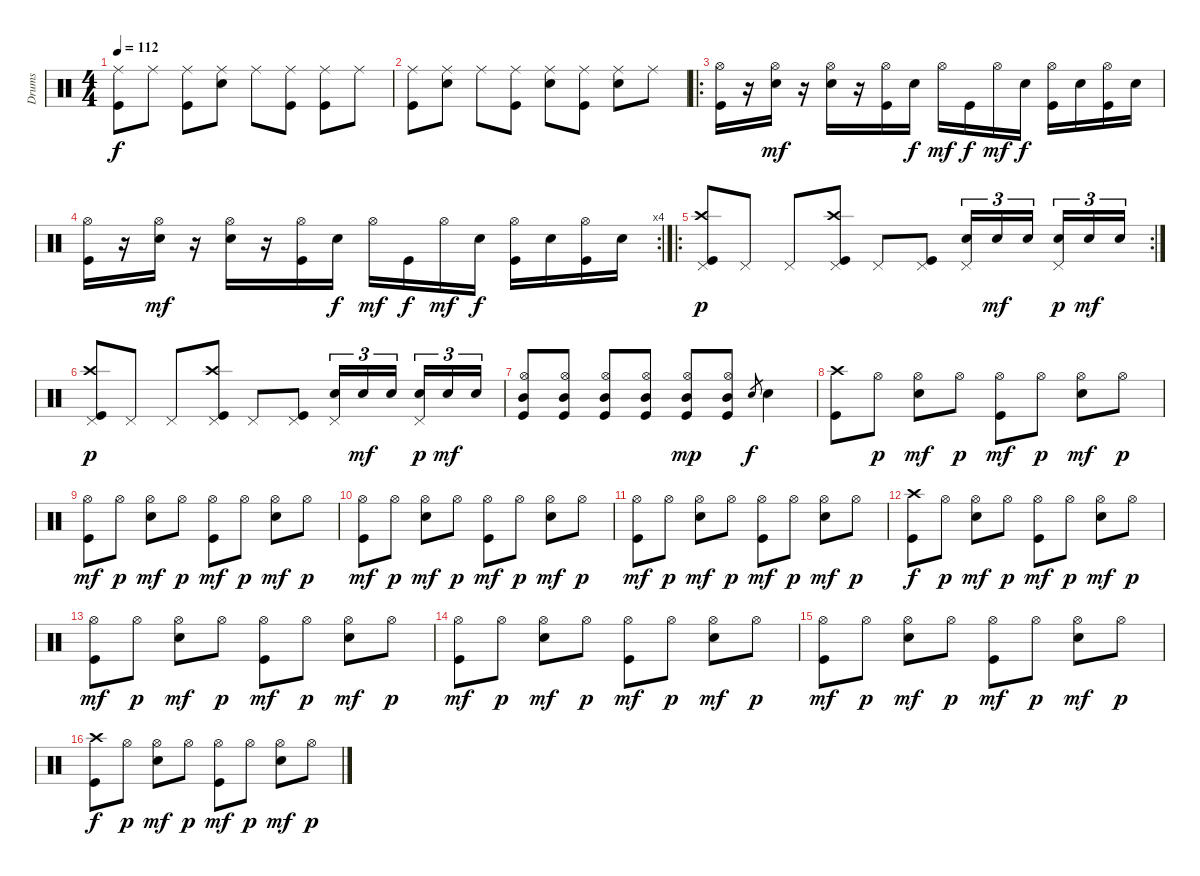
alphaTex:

\track ("Drums" "Drums") {instrument percussion}
\staff {score}
\articulation defaults
\ts (4 4)
\tempo 112
\clef neutral
\ks c
("Ride (middle)" "Kick (hit)").8{dy f} "Ride (middle)".8 ("Ride (middle)" "Kick (hit)").8 ("Ride (middle)" "Snare (hit) 2").8 "Ride (middle)".8 ("Ride (middle)" "Kick (hit)").8 ("Ride (middle)" "Kick (hit)").8 "Ride (middle)".8 |
("Ride (middle)" "Kick (hit)").8 ("Ride (middle)" "Snare (hit) 2").8 "Ride (middle)".8 ("Ride (middle)" "Kick (hit)").8 ("Ride (middle)" "Snare (hit) 2").8 ("Ride (middle)" "Kick (hit)").8 ("Ride (middle)" "Snare (hit) 2").8 "Ride (middle)".8 |
\ro
("Hi-Hat (open)" "Kick (hit)").16 r.16 ("Hi-Hat (open)" "Snare (hit) 2").16{dy mf} r.16 ("Hi-Hat (open)" "Snare (hit) 2").16 r.16 ("Hi-Hat (open)" "Kick (hit)").16 "Snare (hit) 2".16{dy f} "Hi-Hat (open)".16{dy mf} "Kick (hit)".16{dy f} "Hi-Hat (open)".16{dy mf} "Snare (hit) 2".16{dy f} ("Hi-Hat (open)" "Kick (hit)").16 "Snare (hit) 2".16 ("Hi-Hat (open)" "Kick (hit)").16 "Snare (hit) 2".16 |
\rc 4
("Hi-Hat (open)" "Kick (hit)").16 r.16 ("Hi-Hat (open)" "Snare (hit) 2").16{dy mf} r.16 ("Hi-Hat (open)" "Snare (hit) 2").16 r.16 ("Hi-Hat (open)" "Kick (hit)").16 "Snare (hit) 2".16{dy f} "Hi-Hat (open)".16{dy mf} "Kick (hit)".16{dy f} "Hi-Hat (open)".16{dy mf} "Snare (hit) 2".16{dy f} ("Hi-Hat (open)" "Kick (hit)").16 "Snare (hit) 2".16 ("Hi-Hat (open)" "Kick (hit)").16 "Snare (hit) 2".16 |
\ro
\rc 2
("Crash high (hit)" "Pedal Hi-Hat (hit)" "Kick (hit)").8{dy p} "Pedal Hi-Hat (hit)".8 "Pedal Hi-Hat (hit)".8 ("Crash high (hit)" "Pedal Hi-Hat (hit)" "Kick (hit)").8 "Pedal Hi-Hat (hit)".8 ("Pedal Hi-Hat (hit)" "Kick (hit)").8 ("Pedal Hi-Hat (hit)" "Snare (hit) 2").16{tu (3 2)} "Snare (hit) 2".16{tu (3 2) dy mf} "Snare (hit) 2".16{tu (3 2)} ("Pedal Hi-Hat (hit)" "Snare (hit) 2").16{tu (3 2) dy p} "Snare (hit) 2".16{tu (3 2) dy mf} "Snare (hit) 2".16{tu (3 2)} |
("Crash high (hit)" "Pedal Hi-Hat (hit)" "Kick (hit)").8{dy p} "Pedal Hi-Hat (hit)".8 "Pedal Hi-Hat (hit)".8 ("Crash high (hit)" "Pedal Hi-Hat (hit)" "Kick (hit)").8 "Pedal Hi-Hat (hit)".8 ("Pedal Hi-Hat (hit)" "Kick (hit)").8 ("Pedal Hi-Hat (hit)" "Snare (hit) 2").16{tu (3 2)} "Snare (hit) 2".16{tu (3 2) dy mf} "Snare (hit) 2".16{tu (3 2)} ("Pedal Hi-Hat (hit)" "Snare (hit) 2").16{tu (3 2) dy p} "Snare (hit) 2".16{tu (3 2) dy mf} "Snare (hit) 2".16{tu (3 2)} |
("Hi-Hat (open)" "Mid Tom (hit)" "Kick (hit)").8 ("Hi-Hat (open)" "Mid Tom (hit)" "Kick (hit)").8 ("Hi-Hat (open)" "Mid Tom (hit)" "Kick (hit)").8 ("Hi-Hat (open)" "Mid Tom (hit)" "Kick (hit)").8 ("Hi-Hat (open)" "Mid Tom (hit)" "Kick (hit)").8{dy mp} ("Hi-Hat (open)" "Mid Tom (hit)" "Kick (hit)").8 "Snare (hit) 2".8{gr dy f} "Snare (hit) 2".4 |
("Crash high (hit)" "Kick (hit)").8 "Hi-Hat (open)".8{dy p} ("Hi-Hat (open)" "Snare (hit) 2").8{dy mf} "Hi-Hat (open)".8{dy p} ("Hi-Hat (open)" "Kick (hit)").8{dy mf} "Hi-Hat (open)".8{dy p} ("Hi-Hat (open)" "Snare (hit) 2").8{dy mf} "Hi-Hat (open)".8{dy p} |
("Hi-Hat (open)" "Kick (hit)").8{dy mf} "Hi-Hat (open)".8{dy p} ("Hi-Hat (open)" "Snare (hit) 2").8{dy mf} "Hi-Hat (open)".8{dy p} ("Hi-Hat (open)" "Kick (hit)").8{dy mf} "Hi-Hat (open)".8{dy p} ("Hi-Hat (open)" "Snare (hit) 2").8{dy mf} "Hi-Hat (open)".8{dy p} |
("Hi-Hat (open)" "Kick (hit)").8{dy mf} "Hi-Hat (open)".8{dy p} ("Hi-Hat (open)" "Snare (hit) 2").8{dy mf} "Hi-Hat (open)".8{dy p} ("Hi-Hat (open)" "Kick (hit)").8{dy mf} "Hi-Hat (open)".8{dy p} ("Hi-Hat (open)" "Snare (hit) 2").8{dy mf} "Hi-Hat (open)".8{dy p} |
("Hi-Hat (open)" "Kick (hit)").8{dy mf} "Hi-Hat (open)".8{dy p} ("Hi-Hat (open)" "Snare (hit) 2").8{dy mf} "Hi-Hat (open)".8{dy p} ("Hi-Hat (open)" "Kick (hit)").8{dy mf} "Hi-Hat (open)".8{dy p} ("Hi-Hat (open)" "Snare (hit) 2").8{dy mf} "Hi-Hat (open)".8{dy p} |
("Crash high (hit)" "Kick (hit)").8{dy f} "Hi-Hat (open)".8{dy p} ("Hi-Hat (open)" "Snare (hit) 2").8{dy mf} "Hi-Hat (open)".8{dy p} ("Hi-Hat (open)" "Kick (hit)").8{dy mf} "Hi-Hat (open)".8{dy p} ("Hi-Hat (open)" "Snare (hit) 2").8{dy mf} "Hi-Hat (open)".8{dy p} |
("Hi-Hat (open)" "Kick (hit)").8{dy mf} "Hi-Hat (open)".8{dy p} ("Hi-Hat (open)" "Snare (hit) 2").8{dy mf} "Hi-Hat (open)".8{dy p} ("Hi-Hat (open)" "Kick (hit)").8{dy mf} "Hi-Hat (open)".8{dy p} ("Hi-Hat (open)" "Snare (hit) 2").8{dy mf} "Hi-Hat (open)".8{dy p} |
("Hi-Hat (open)" "Kick (hit)").8{dy mf} "Hi-Hat (open)".8{dy p} ("Hi-Hat (open)" "Snare (hit) 2").8{dy mf} "Hi-Hat (open)".8{dy p} ("Hi-Hat (open)" "Kick (hit)").8{dy mf} "Hi-Hat (open)".8{dy p} ("Hi-Hat (open)" "Snare (hit) 2").8{dy mf} "Hi-Hat (open)".8{dy p} |
("Hi-Hat (open)" "Kick (hit)").8{dy mf} "Hi-Hat (open)".8{dy p} ("Hi-Hat (open)" "Snare (hit) 2").8{dy mf} "Hi-Hat (open)".8{dy p} ("Hi-Hat (open)" "Kick (hit)").8{dy mf} "Hi-Hat (open)".8{dy p} ("Hi-Hat (open)" "Snare (hit) 2").8{dy mf} "Hi-Hat (open)".8{dy p} |
("Crash high (hit)" "Kick (hit)").8{dy f} "Hi-Hat (open)".8{dy p} ("Hi-Hat (open)" "Snare (hit) 2").8{dy mf} "Hi-Hat (open)".8{dy p} ("Hi-Hat (open)" "Kick (hit)").8{dy mf} "Hi-Hat (open)".8{dy p} ("Hi-Hat (open)" "Snare (hit) 2").8{dy mf} "Hi-Hat (open)".8{dy p}
